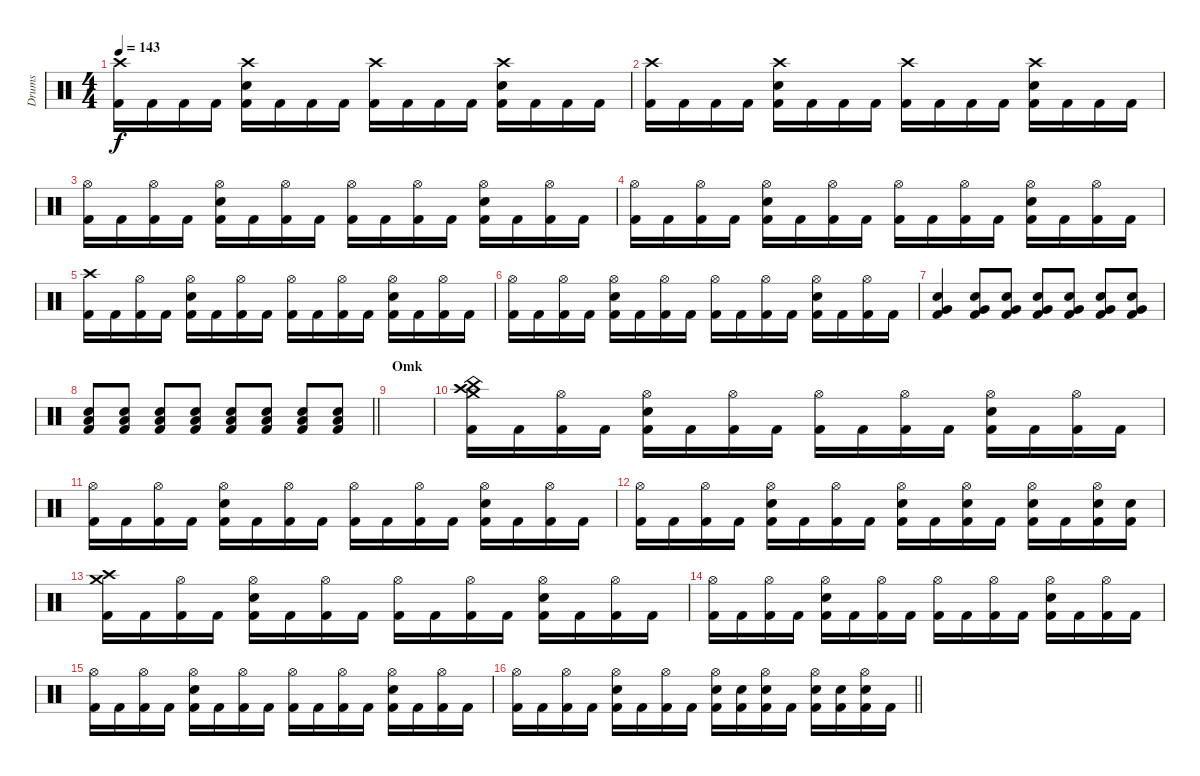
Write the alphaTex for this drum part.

\track ("Drums" "Drums") {instrument percussion}
\staff {score}
\articulation defaults
\ts (4 4)
\tempo 143
\clef neutral
\ks c
("Crash high (hit)" "Kick (hit) 2").16{dy f} "Kick (hit) 2".16 "Kick (hit) 2".16 "Kick (hit) 2".16 ("Crash high (hit)" "Snare (hit) 2" "Kick (hit) 2").16 "Kick (hit) 2".16 "Kick (hit) 2".16 "Kick (hit) 2".16 ("Crash high (hit)" "Kick (hit) 2").16 "Kick (hit) 2".16 "Kick (hit) 2".16 "Kick (hit) 2".16 ("Crash high (hit)" "Snare (hit) 2" "Kick (hit) 2").16 "Kick (hit) 2".16 "Kick (hit) 2".16 "Kick (hit) 2".16 |
("Crash high (hit)" "Kick (hit) 2").16 "Kick (hit) 2".16 "Kick (hit) 2".16 "Kick (hit) 2".16 ("Crash high (hit)" "Snare (hit) 2" "Kick (hit) 2").16 "Kick (hit) 2".16 "Kick (hit) 2".16 "Kick (hit) 2".16 ("Crash high (hit)" "Kick (hit) 2").16 "Kick (hit) 2".16 "Kick (hit) 2".16 "Kick (hit) 2".16 ("Crash high (hit)" "Snare (hit) 2" "Kick (hit) 2").16 "Kick (hit) 2".16 "Kick (hit) 2".16 "Kick (hit) 2".16 |
("Hi-Hat (open)" "Kick (hit) 2").16 "Kick (hit) 2".16 ("Hi-Hat (open)" "Kick (hit) 2").16 "Kick (hit) 2".16 ("Hi-Hat (open)" "Snare (hit) 2" "Kick (hit) 2").16 "Kick (hit) 2".16 ("Hi-Hat (open)" "Kick (hit) 2").16 "Kick (hit) 2".16 ("Hi-Hat (open)" "Kick (hit) 2").16 "Kick (hit) 2".16 ("Hi-Hat (open)" "Kick (hit) 2").16 "Kick (hit) 2".16 ("Hi-Hat (open)" "Snare (hit) 2" "Kick (hit) 2").16 "Kick (hit) 2".16 ("Hi-Hat (open)" "Kick (hit) 2").16 "Kick (hit) 2".16 |
("Hi-Hat (open)" "Kick (hit) 2").16 "Kick (hit) 2".16 ("Hi-Hat (open)" "Kick (hit) 2").16 "Kick (hit) 2".16 ("Hi-Hat (open)" "Snare (hit) 2" "Kick (hit) 2").16 "Kick (hit) 2".16 ("Hi-Hat (open)" "Kick (hit) 2").16 "Kick (hit) 2".16 ("Hi-Hat (open)" "Kick (hit) 2").16 "Kick (hit) 2".16 ("Hi-Hat (open)" "Kick (hit) 2").16 "Kick (hit) 2".16 ("Hi-Hat (open)" "Snare (hit) 2" "Kick (hit) 2").16 "Kick (hit) 2".16 ("Hi-Hat (open)" "Kick (hit) 2").16 "Kick (hit) 2".16 |
("Crash high (hit)" "Kick (hit) 2").16 "Kick (hit) 2".16 ("Hi-Hat (open)" "Kick (hit) 2").16 "Kick (hit) 2".16 ("Hi-Hat (open)" "Snare (hit) 2" "Kick (hit) 2").16 "Kick (hit) 2".16 ("Hi-Hat (open)" "Kick (hit) 2").16 "Kick (hit) 2".16 ("Hi-Hat (open)" "Kick (hit) 2").16 "Kick (hit) 2".16 ("Hi-Hat (open)" "Kick (hit) 2").16 "Kick (hit) 2".16 ("Hi-Hat (open)" "Snare (hit) 2" "Kick (hit) 2").16 "Kick (hit) 2".16 ("Hi-Hat (open)" "Kick (hit) 2").16 "Kick (hit) 2".16 |
("Hi-Hat (open)" "Kick (hit) 2").16 "Kick (hit) 2".16 ("Hi-Hat (open)" "Kick (hit) 2").16 "Kick (hit) 2".16 ("Hi-Hat (open)" "Snare (hit) 2" "Kick (hit) 2").16 "Kick (hit) 2".16 ("Hi-Hat (open)" "Kick (hit) 2").16 "Kick (hit) 2".16 ("Hi-Hat (open)" "Kick (hit) 2").16 "Kick (hit) 2".16 ("Hi-Hat (open)" "Kick (hit) 2").16 "Kick (hit) 2".16 ("Hi-Hat (open)" "Snare (hit) 2" "Kick (hit) 2").16 "Kick (hit) 2".16 ("Hi-Hat (open)" "Kick (hit) 2").16 "Kick (hit) 2".16 |
("Very Low Tom (hit)" "Snare (hit) 2" "Kick (hit) 2").4 ("Very Low Tom (hit)" "Snare (hit) 2" "Kick (hit) 2").8 ("Very Low Tom (hit)" "Snare (hit) 2" "Kick (hit) 2").8 ("Very Low Tom (hit)" "Snare (hit) 2" "Kick (hit) 2").8 ("Very Low Tom (hit)" "Snare (hit) 2" "Kick (hit) 2").8 ("Very Low Tom (hit)" "Snare (hit) 2" "Kick (hit) 2").8 ("Very Low Tom (hit)" "Snare (hit) 2" "Kick (hit) 2").8 |
\barLineRight lightlight
("Low Floor Tom (hit)" "Snare (hit) 2" "Kick (hit) 2").8 ("Low Floor Tom (hit)" "Snare (hit) 2" "Kick (hit) 2").8 ("Low Floor Tom (hit)" "Snare (hit) 2" "Kick (hit) 2").8 ("Low Floor Tom (hit)" "Snare (hit) 2" "Kick (hit) 2").8 ("Low Floor Tom (hit)" "Snare (hit) 2" "Kick (hit) 2").8 ("Low Floor Tom (hit)" "Snare (hit) 2" "Kick (hit) 2").8 ("Low Floor Tom (hit)" "Snare (hit) 2" "Kick (hit) 2").8 ("Low Floor Tom (hit)" "Snare (hit) 2" "Kick (hit) 2").8 |
\section ("" "Omk")
|
("Crash medium (hit)" "Crash high (hit)" "China (hit)" "Kick (hit) 2").16 "Kick (hit) 2".16 ("Hi-Hat (open)" "Kick (hit) 2").16 "Kick (hit) 2".16 ("Hi-Hat (open)" "Snare (hit) 2" "Kick (hit) 2").16 "Kick (hit) 2".16 ("Hi-Hat (open)" "Kick (hit) 2").16 "Kick (hit) 2".16 ("Hi-Hat (open)" "Kick (hit) 2").16 "Kick (hit) 2".16 ("Hi-Hat (open)" "Kick (hit) 2").16 "Kick (hit) 2".16 ("Hi-Hat (open)" "Snare (hit) 2" "Kick (hit) 2").16 "Kick (hit) 2".16 ("Hi-Hat (open)" "Kick (hit) 2").16 "Kick (hit) 2".16 |
("Hi-Hat (open)" "Kick (hit) 2").16 "Kick (hit) 2".16 ("Hi-Hat (open)" "Kick (hit) 2").16 "Kick (hit) 2".16 ("Hi-Hat (open)" "Snare (hit) 2" "Kick (hit) 2").16 "Kick (hit) 2".16 ("Hi-Hat (open)" "Kick (hit) 2").16 "Kick (hit) 2".16 ("Hi-Hat (open)" "Kick (hit) 2").16 "Kick (hit) 2".16 ("Hi-Hat (open)" "Kick (hit) 2").16 "Kick (hit) 2".16 ("Hi-Hat (open)" "Snare (hit) 2" "Kick (hit) 2").16 "Kick (hit) 2".16 ("Hi-Hat (open)" "Kick (hit) 2").16 "Kick (hit) 2".16 |
("Hi-Hat (open)" "Kick (hit) 2").16 "Kick (hit) 2".16 ("Hi-Hat (open)" "Kick (hit) 2").16 "Kick (hit) 2".16 ("Hi-Hat (open)" "Snare (hit) 2" "Kick (hit) 2").16 "Kick (hit) 2".16 ("Hi-Hat (open)" "Kick (hit) 2").16 "Kick (hit) 2".16 ("Hi-Hat (open)" "Snare (hit) 2" "Kick (hit) 2").16 "Kick (hit) 2".16 ("Hi-Hat (open)" "Snare (hit) 2" "Kick (hit) 2").16 "Kick (hit) 2".16 ("Hi-Hat (open)" "Snare (hit) 2" "Kick (hit) 2").16 "Kick (hit) 2".16 ("Hi-Hat (open)" "Snare (hit) 2" "Kick (hit) 2").16 ("Snare (hit) 2" "Kick (hit) 2").16 |
("Crash medium (hit)" "Crash high (hit)" "Kick (hit) 2").16 "Kick (hit) 2".16 ("Hi-Hat (open)" "Kick (hit) 2").16 "Kick (hit) 2".16 ("Hi-Hat (open)" "Snare (hit) 2" "Kick (hit) 2").16 "Kick (hit) 2".16 ("Hi-Hat (open)" "Kick (hit) 2").16 "Kick (hit) 2".16 ("Hi-Hat (open)" "Kick (hit) 2").16 "Kick (hit) 2".16 ("Hi-Hat (open)" "Kick (hit) 2").16 "Kick (hit) 2".16 ("Hi-Hat (open)" "Snare (hit) 2" "Kick (hit) 2").16 "Kick (hit) 2".16 ("Hi-Hat (open)" "Kick (hit) 2").16 "Kick (hit) 2".16 |
("Hi-Hat (open)" "Kick (hit) 2").16 "Kick (hit) 2".16 ("Hi-Hat (open)" "Kick (hit) 2").16 "Kick (hit) 2".16 ("Hi-Hat (open)" "Snare (hit) 2" "Kick (hit) 2").16 "Kick (hit) 2".16 ("Hi-Hat (open)" "Kick (hit) 2").16 "Kick (hit) 2".16 ("Hi-Hat (open)" "Kick (hit) 2").16 "Kick (hit) 2".16 ("Hi-Hat (open)" "Kick (hit) 2").16 "Kick (hit) 2".16 ("Hi-Hat (open)" "Snare (hit) 2" "Kick (hit) 2").16 "Kick (hit) 2".16 ("Hi-Hat (open)" "Kick (hit) 2").16 "Kick (hit) 2".16 |
("Hi-Hat (open)" "Kick (hit) 2").16 "Kick (hit) 2".16 ("Hi-Hat (open)" "Kick (hit) 2").16 "Kick (hit) 2".16 ("Hi-Hat (open)" "Snare (hit) 2" "Kick (hit) 2").16 "Kick (hit) 2".16 ("Hi-Hat (open)" "Kick (hit) 2").16 "Kick (hit) 2".16 ("Hi-Hat (open)" "Kick (hit) 2").16 "Kick (hit) 2".16 ("Hi-Hat (open)" "Kick (hit) 2").16 "Kick (hit) 2".16 ("Hi-Hat (open)" "Snare (hit) 2" "Kick (hit) 2").16 "Kick (hit) 2".16 ("Hi-Hat (open)" "Kick (hit) 2").16 "Kick (hit) 2".16 |
\barLineRight lightlight
("Hi-Hat (open)" "Kick (hit) 2").16 "Kick (hit) 2".16 ("Hi-Hat (open)" "Kick (hit) 2").16 "Kick (hit) 2".16 ("Hi-Hat (open)" "Snare (hit) 2" "Kick (hit) 2").16 "Kick (hit) 2".16 ("Hi-Hat (open)" "Kick (hit) 2").16 "Kick (hit) 2".16 ("Hi-Hat (open)" "Snare (hit) 2" "Kick (hit) 2").16 ("Snare (hit) 2" "Kick (hit) 2").16 ("Hi-Hat (open)" "Snare (hit) 2" "Kick (hit) 2").16 "Kick (hit) 2".16 ("Hi-Hat (open)" "Snare (hit) 2" "Kick (hit) 2").16 ("Snare (hit) 2" "Kick (hit) 2").16 ("Hi-Hat (open)" "Snare (hit) 2" "Kick (hit) 2").16 "Kick (hit) 2".16
